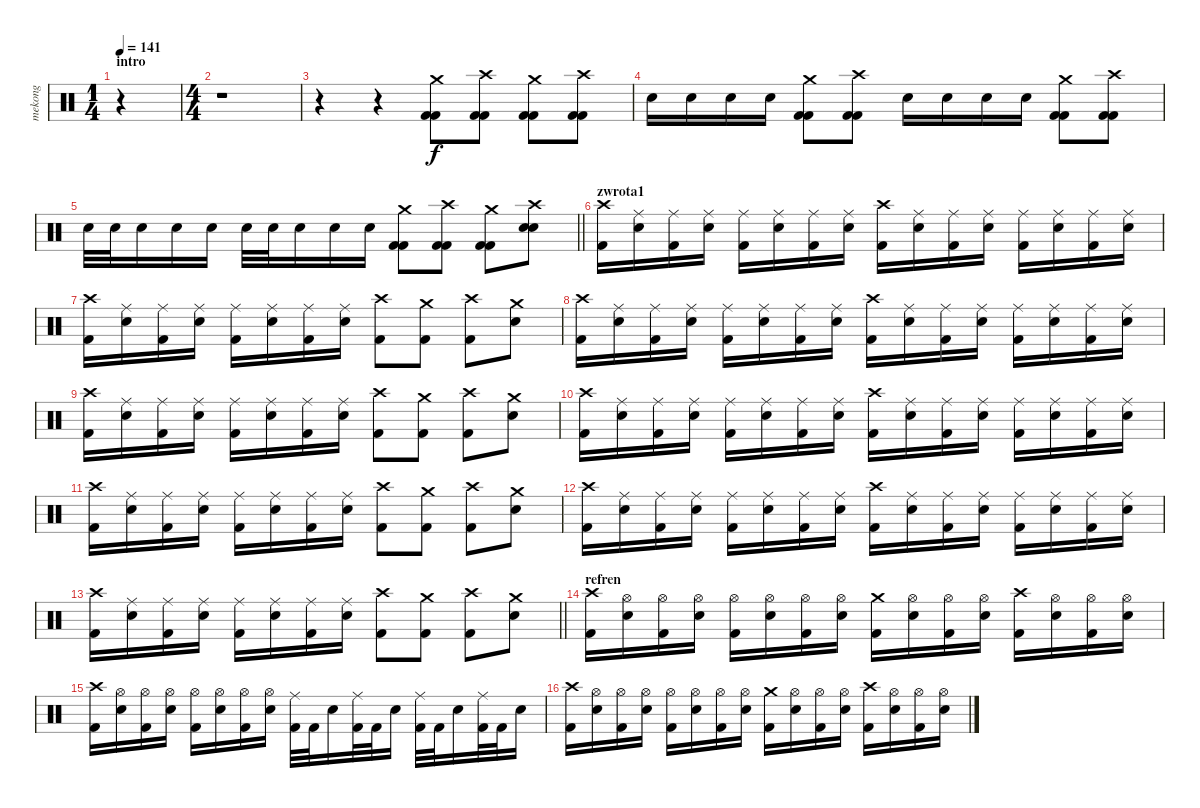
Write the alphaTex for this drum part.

\track ("mekong" "mekong") {instrument percussion}
\staff {score}
\articulation defaults
\ts (1 4)
\section ("" "intro")
\tempo 141
\clef neutral
\ks c
r.4{dy f} |
\ts (4 4)
r.1 |
r.4 r.4 ("Crash medium (hit)" "Kick (hit) 2" "Kick (hit) 2").8 ("Crash high (hit)" "Kick (hit) 2" "Kick (hit) 2").8 ("Crash medium (hit)" "Kick (hit) 2" "Kick (hit) 2").8 ("Crash high (hit)" "Kick (hit) 2" "Kick (hit) 2").8 |
"Electric Snare (hit)".16 "Electric Snare (hit)".16 "Electric Snare (hit)".16 "Electric Snare (hit)".16 ("Crash medium (hit)" "Kick (hit) 2" "Kick (hit) 2").8 ("Crash high (hit)" "Kick (hit) 2" "Kick (hit) 2").8 "Electric Snare (hit)".16 "Electric Snare (hit)".16 "Electric Snare (hit)".16 "Electric Snare (hit)".16 ("Crash medium (hit)" "Kick (hit) 2" "Kick (hit) 2").8 ("Crash high (hit)" "Kick (hit) 2" "Kick (hit) 2").8 |
\barLineRight lightlight "Electric Snare (hit)".32 "Electric Snare (hit)".32 "Electric Snare (hit)".16 "Electric Snare (hit)".16 "Electric Snare (hit)".16 "Electric Snare (hit)".32 "Electric Snare (hit)".32 "Electric Snare (hit)".16 "Electric Snare (hit)".16 "Electric Snare (hit)".16
("Crash medium (hit)" "Kick (hit) 2" "Kick (hit) 2").8 ("Crash high (hit)" "Kick (hit) 2" "Kick (hit) 2").8 ("Crash medium (hit)" "Kick (hit) 2" "Kick (hit) 2").8 ("Crash high (hit)" "Electric Snare (hit)" "Electric Snare (hit)").8 |
\section ("" "zwrota1")
("Crash high (hit)" "Kick (hit) 2").16 ("Electric Snare (hit)" "Ride (middle)").16 ("Ride (middle)" "Kick (hit) 2").16 ("Electric Snare (hit)" "Ride (middle)").16 ("Ride (middle)" "Kick (hit) 2").16 ("Electric Snare (hit)" "Ride (middle)").16 ("Ride (middle)" "Kick (hit) 2").16 ("Electric Snare (hit)" "Ride (middle)").16 ("Crash high (hit)" "Kick (hit) 2").16 ("Electric Snare (hit)" "Ride (middle)").16 ("Ride (middle)" "Kick (hit) 2").16 ("Electric Snare (hit)" "Ride (middle)").16 ("Ride (middle)" "Kick (hit) 2").16 ("Electric Snare (hit)" "Ride (middle)").16 ("Ride (middle)" "Kick (hit) 2").16 ("Electric Snare (hit)" "Ride (middle)").16 |
("Crash high (hit)" "Kick (hit) 2").16 ("Electric Snare (hit)" "Ride (middle)").16 ("Ride (middle)" "Kick (hit) 2").16 ("Electric Snare (hit)" "Ride (middle)").16 ("Ride (middle)" "Kick (hit) 2").16 ("Electric Snare (hit)" "Ride (middle)").16 ("Ride (middle)" "Kick (hit) 2").16 ("Electric Snare (hit)" "Ride (middle)").16 ("Crash high (hit)" "Kick (hit) 2").8 ("Crash medium (hit)" "Kick (hit) 2").8 ("Crash high (hit)" "Kick (hit) 2").8 ("Crash medium (hit)" "Electric Snare (hit)").8 |
("Crash high (hit)" "Kick (hit) 2").16 ("Electric Snare (hit)" "Ride (middle)").16 ("Ride (middle)" "Kick (hit) 2").16 ("Electric Snare (hit)" "Ride (middle)").16 ("Ride (middle)" "Kick (hit) 2").16 ("Electric Snare (hit)" "Ride (middle)").16 ("Ride (middle)" "Kick (hit) 2").16 ("Electric Snare (hit)" "Ride (middle)").16 ("Crash high (hit)" "Kick (hit) 2").16 ("Electric Snare (hit)" "Ride (middle)").16 ("Ride (middle)" "Kick (hit) 2").16 ("Electric Snare (hit)" "Ride (middle)").16 ("Ride (middle)" "Kick (hit) 2").16 ("Electric Snare (hit)" "Ride (middle)").16 ("Ride (middle)" "Kick (hit) 2").16 ("Electric Snare (hit)" "Ride (middle)").16 |
("Crash high (hit)" "Kick (hit) 2").16 ("Electric Snare (hit)" "Ride (middle)").16 ("Ride (middle)" "Kick (hit) 2").16 ("Electric Snare (hit)" "Ride (middle)").16 ("Ride (middle)" "Kick (hit) 2").16 ("Electric Snare (hit)" "Ride (middle)").16 ("Ride (middle)" "Kick (hit) 2").16 ("Electric Snare (hit)" "Ride (middle)").16 ("Crash high (hit)" "Kick (hit) 2").8 ("Crash medium (hit)" "Kick (hit) 2").8 ("Crash high (hit)" "Kick (hit) 2").8 ("Crash medium (hit)" "Electric Snare (hit)").8 |
("Crash high (hit)" "Kick (hit) 2").16 ("Electric Snare (hit)" "Ride (middle)").16 ("Ride (middle)" "Kick (hit) 2").16 ("Electric Snare (hit)" "Ride (middle)").16 ("Ride (middle)" "Kick (hit) 2").16 ("Electric Snare (hit)" "Ride (middle)").16 ("Ride (middle)" "Kick (hit) 2").16 ("Electric Snare (hit)" "Ride (middle)").16 ("Crash high (hit)" "Kick (hit) 2").16 ("Electric Snare (hit)" "Ride (middle)").16 ("Ride (middle)" "Kick (hit) 2").16 ("Electric Snare (hit)" "Ride (middle)").16 ("Ride (middle)" "Kick (hit) 2").16 ("Electric Snare (hit)" "Ride (middle)").16 ("Ride (middle)" "Kick (hit) 2").16 ("Electric Snare (hit)" "Ride (middle)").16 |
("Crash high (hit)" "Kick (hit) 2").16 ("Electric Snare (hit)" "Ride (middle)").16 ("Ride (middle)" "Kick (hit) 2").16 ("Electric Snare (hit)" "Ride (middle)").16 ("Ride (middle)" "Kick (hit) 2").16 ("Electric Snare (hit)" "Ride (middle)").16 ("Ride (middle)" "Kick (hit) 2").16 ("Electric Snare (hit)" "Ride (middle)").16 ("Crash high (hit)" "Kick (hit) 2").8 ("Crash medium (hit)" "Kick (hit) 2").8 ("Crash high (hit)" "Kick (hit) 2").8 ("Crash medium (hit)" "Electric Snare (hit)").8 |
("Crash high (hit)" "Kick (hit) 2").16 ("Electric Snare (hit)" "Ride (middle)").16 ("Ride (middle)" "Kick (hit) 2").16 ("Electric Snare (hit)" "Ride (middle)").16 ("Ride (middle)" "Kick (hit) 2").16 ("Electric Snare (hit)" "Ride (middle)").16 ("Ride (middle)" "Kick (hit) 2").16 ("Electric Snare (hit)" "Ride (middle)").16 ("Crash high (hit)" "Kick (hit) 2").16 ("Electric Snare (hit)" "Ride (middle)").16 ("Ride (middle)" "Kick (hit) 2").16 ("Electric Snare (hit)" "Ride (middle)").16 ("Ride (middle)" "Kick (hit) 2").16 ("Electric Snare (hit)" "Ride (middle)").16 ("Ride (middle)" "Kick (hit) 2").16 ("Electric Snare (hit)" "Ride (middle)").16 |
\barLineRight lightlight
("Crash high (hit)" "Kick (hit) 2").16 ("Electric Snare (hit)" "Ride (middle)").16 ("Ride (middle)" "Kick (hit) 2").16 ("Electric Snare (hit)" "Ride (middle)").16 ("Ride (middle)" "Kick (hit) 2").16 ("Electric Snare (hit)" "Ride (middle)").16 ("Ride (middle)" "Kick (hit) 2").16 ("Electric Snare (hit)" "Ride (middle)").16 ("Crash high (hit)" "Kick (hit) 2").8 ("Crash medium (hit)" "Kick (hit) 2").8 ("Crash high (hit)" "Kick (hit) 2").8 ("Crash medium (hit)" "Electric Snare (hit)").8 |
\section ("" "refren")
("Crash high (hit)" "Kick (hit) 2").16 ("Electric Snare (hit)" "Hi-Hat (open)").16 ("Hi-Hat (open)" "Kick (hit) 2").16 ("Electric Snare (hit)" "Hi-Hat (open)").16 ("Hi-Hat (open)" "Kick (hit) 2").16 ("Electric Snare (hit)" "Hi-Hat (open)").16 ("Hi-Hat (open)" "Kick (hit) 2").16 ("Electric Snare (hit)" "Hi-Hat (open)").16 ("Crash medium (hit)" "Kick (hit) 2").16 ("Electric Snare (hit)" "Hi-Hat (open)").16 ("Hi-Hat (open)" "Kick (hit) 2").16 ("Electric Snare (hit)" "Hi-Hat (open)").16 ("Crash high (hit)" "Kick (hit) 2").16 ("Electric Snare (hit)" "Hi-Hat (open)").16 ("Hi-Hat (open)" "Kick (hit) 2").16 ("Electric Snare (hit)" "Hi-Hat (open)").16 |
("Crash high (hit)" "Kick (hit) 2").16 ("Electric Snare (hit)" "Hi-Hat (open)").16 ("Hi-Hat (open)" "Kick (hit) 2").16 ("Electric Snare (hit)" "Hi-Hat (open)").16 ("Hi-Hat (open)" "Kick (hit) 2").16 ("Electric Snare (hit)" "Hi-Hat (open)").16 ("Hi-Hat (open)" "Kick (hit) 2").16 ("Electric Snare (hit)" "Hi-Hat (open)").16 ("Ride (middle)" "Kick (hit) 2").32 "Kick (hit) 2".32 "Electric Snare (hit)".16 ("Ride (middle)" "Kick (hit) 2").32 "Kick (hit) 2".32 "Electric Snare (hit)".16 ("Ride (middle)" "Kick (hit) 2").32 "Kick (hit) 2".32 "Electric Snare (hit)".16 ("Ride (middle)" "Kick (hit) 2").32 "Kick (hit) 2".32 "Electric Snare (hit)".16 |
("Crash high (hit)" "Kick (hit) 2").16 ("Electric Snare (hit)" "Hi-Hat (open)").16 ("Hi-Hat (open)" "Kick (hit) 2").16 ("Electric Snare (hit)" "Hi-Hat (open)").16 ("Hi-Hat (open)" "Kick (hit) 2").16 ("Electric Snare (hit)" "Hi-Hat (open)").16 ("Hi-Hat (open)" "Kick (hit) 2").16 ("Electric Snare (hit)" "Hi-Hat (open)").16 ("Crash medium (hit)" "Kick (hit) 2").16 ("Electric Snare (hit)" "Hi-Hat (open)").16 ("Hi-Hat (open)" "Kick (hit) 2").16 ("Electric Snare (hit)" "Hi-Hat (open)").16 ("Crash high (hit)" "Kick (hit) 2").16 ("Electric Snare (hit)" "Hi-Hat (open)").16 ("Hi-Hat (open)" "Kick (hit) 2").16 ("Electric Snare (hit)" "Hi-Hat (open)").16
